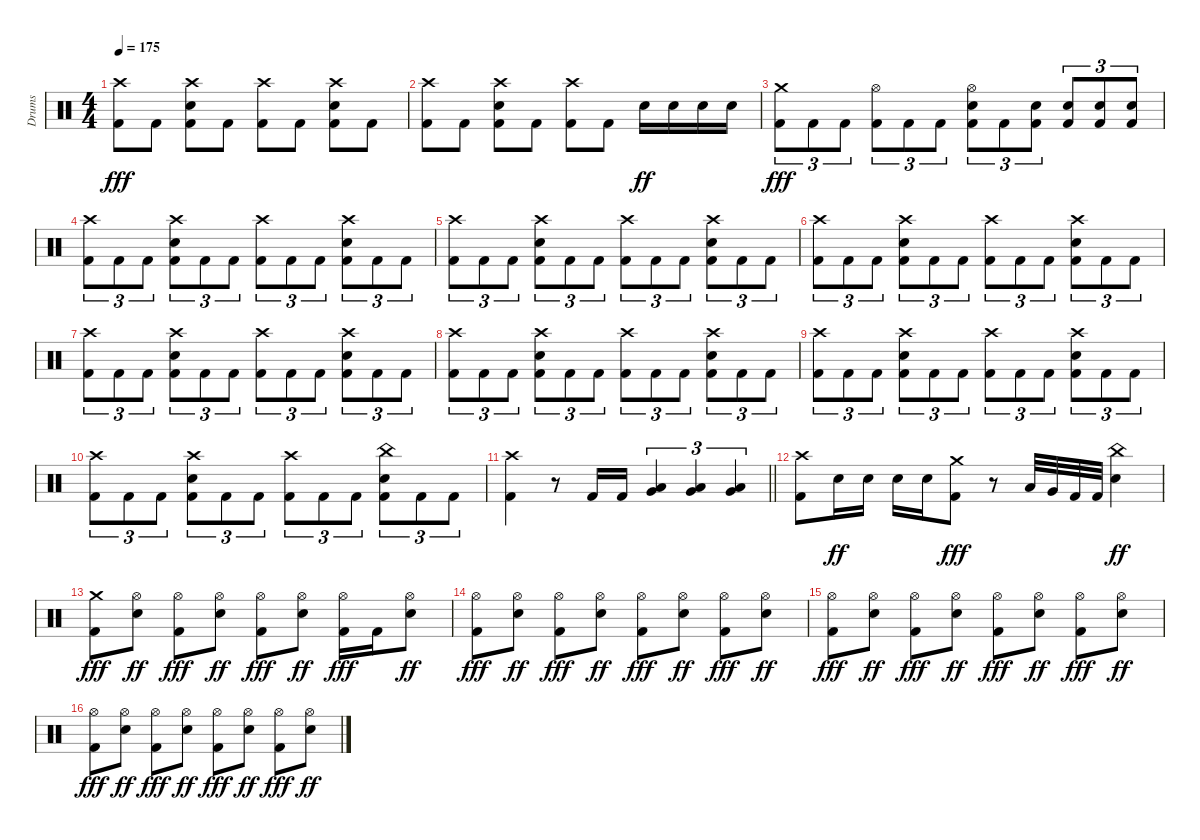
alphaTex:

\track ("Drums" "Drums") {instrument percussion}
\staff {score}
\articulation defaults
\ts (4 4)
\tempo 175
\clef neutral
\ks c
("Crash high (hit)" "Kick (hit) 2").8{dy fff} "Kick (hit) 2".8 ("Crash high (hit)" "Snare (hit) 2" "Kick (hit) 2").8 "Kick (hit) 2".8 ("Crash high (hit)" "Kick (hit) 2").8 "Kick (hit) 2".8 ("Crash high (hit)" "Snare (hit) 2" "Kick (hit) 2").8 "Kick (hit) 2".8 |
("Crash high (hit)" "Kick (hit) 2").8 "Kick (hit) 2".8 ("Crash high (hit)" "Snare (hit) 2" "Kick (hit) 2").8 "Kick (hit) 2".8 ("Crash high (hit)" "Kick (hit) 2").8 "Kick (hit) 2".8 "Snare (hit) 2".16{dy ff} "Snare (hit) 2".16 "Snare (hit) 2".16 "Snare (hit) 2".16 |
("Crash medium (hit)" "Kick (hit) 2").8{tu (3 2) dy fff} "Kick (hit) 2".8{tu (3 2)} "Kick (hit) 2".8{tu (3 2)} ("Hi-Hat (open)" "Kick (hit) 2").8{tu (3 2)} "Kick (hit) 2".8{tu (3 2)} "Kick (hit) 2".8{tu (3 2)} ("Hi-Hat (open)" "Snare (hit) 2" "Kick (hit) 2").8{tu (3 2)} "Kick (hit) 2".8{tu (3 2)} ("Snare (hit) 2" "Kick (hit) 2").8{tu (3 2)} ("Snare (hit) 2" "Kick (hit) 2").8{tu (3 2)} ("Snare (hit) 2" "Kick (hit) 2").8{tu (3 2)} ("Snare (hit) 2" "Kick (hit) 2").8{tu (3 2)} |
("Crash high (hit)" "Kick (hit) 2").8{tu (3 2)} "Kick (hit) 2".8{tu (3 2)} "Kick (hit) 2".8{tu (3 2)} ("Crash high (hit)" "Snare (hit) 2" "Kick (hit) 2").8{tu (3 2)} "Kick (hit) 2".8{tu (3 2)} "Kick (hit) 2".8{tu (3 2)} ("Crash high (hit)" "Kick (hit) 2").8{tu (3 2)} "Kick (hit) 2".8{tu (3 2)} "Kick (hit) 2".8{tu (3 2)} ("Crash high (hit)" "Snare (hit) 2" "Kick (hit) 2").8{tu (3 2)} "Kick (hit) 2".8{tu (3 2)} "Kick (hit) 2".8{tu (3 2)} |
("Crash high (hit)" "Kick (hit) 2").8{tu (3 2)} "Kick (hit) 2".8{tu (3 2)} "Kick (hit) 2".8{tu (3 2)} ("Crash high (hit)" "Snare (hit) 2" "Kick (hit) 2").8{tu (3 2)} "Kick (hit) 2".8{tu (3 2)} "Kick (hit) 2".8{tu (3 2)} ("Crash high (hit)" "Kick (hit) 2").8{tu (3 2)} "Kick (hit) 2".8{tu (3 2)} "Kick (hit) 2".8{tu (3 2)} ("Crash high (hit)" "Snare (hit) 2" "Kick (hit) 2").8{tu (3 2)} "Kick (hit) 2".8{tu (3 2)} "Kick (hit) 2".8{tu (3 2)} |
("Crash high (hit)" "Kick (hit) 2").8{tu (3 2)} "Kick (hit) 2".8{tu (3 2)} "Kick (hit) 2".8{tu (3 2)} ("Crash high (hit)" "Snare (hit) 2" "Kick (hit) 2").8{tu (3 2)} "Kick (hit) 2".8{tu (3 2)} "Kick (hit) 2".8{tu (3 2)} ("Crash high (hit)" "Kick (hit) 2").8{tu (3 2)} "Kick (hit) 2".8{tu (3 2)} "Kick (hit) 2".8{tu (3 2)} ("Crash high (hit)" "Snare (hit) 2" "Kick (hit) 2").8{tu (3 2)} "Kick (hit) 2".8{tu (3 2)} "Kick (hit) 2".8{tu (3 2)} |
("Crash high (hit)" "Kick (hit) 2").8{tu (3 2)} "Kick (hit) 2".8{tu (3 2)} "Kick (hit) 2".8{tu (3 2)} ("Crash high (hit)" "Snare (hit) 2" "Kick (hit) 2").8{tu (3 2)} "Kick (hit) 2".8{tu (3 2)} "Kick (hit) 2".8{tu (3 2)} ("Crash high (hit)" "Kick (hit) 2").8{tu (3 2)} "Kick (hit) 2".8{tu (3 2)} "Kick (hit) 2".8{tu (3 2)} ("Crash high (hit)" "Snare (hit) 2" "Kick (hit) 2").8{tu (3 2)} "Kick (hit) 2".8{tu (3 2)} "Kick (hit) 2".8{tu (3 2)} |
("Crash high (hit)" "Kick (hit) 2").8{tu (3 2)} "Kick (hit) 2".8{tu (3 2)} "Kick (hit) 2".8{tu (3 2)} ("Crash high (hit)" "Snare (hit) 2" "Kick (hit) 2").8{tu (3 2)} "Kick (hit) 2".8{tu (3 2)} "Kick (hit) 2".8{tu (3 2)} ("Crash high (hit)" "Kick (hit) 2").8{tu (3 2)} "Kick (hit) 2".8{tu (3 2)} "Kick (hit) 2".8{tu (3 2)} ("Crash high (hit)" "Snare (hit) 2" "Kick (hit) 2").8{tu (3 2)} "Kick (hit) 2".8{tu (3 2)} "Kick (hit) 2".8{tu (3 2)} |
("Crash high (hit)" "Kick (hit) 2").8{tu (3 2)} "Kick (hit) 2".8{tu (3 2)} "Kick (hit) 2".8{tu (3 2)} ("Crash high (hit)" "Snare (hit) 2" "Kick (hit) 2").8{tu (3 2)} "Kick (hit) 2".8{tu (3 2)} "Kick (hit) 2".8{tu (3 2)} ("Crash high (hit)" "Kick (hit) 2").8{tu (3 2)} "Kick (hit) 2".8{tu (3 2)} "Kick (hit) 2".8{tu (3 2)} ("Crash high (hit)" "Snare (hit) 2" "Kick (hit) 2").8{tu (3 2)} "Kick (hit) 2".8{tu (3 2)} "Kick (hit) 2".8{tu (3 2)} |
("Crash high (hit)" "Kick (hit) 2").8{tu (3 2)} "Kick (hit) 2".8{tu (3 2)} "Kick (hit) 2".8{tu (3 2)} ("Crash high (hit)" "Snare (hit) 2" "Kick (hit) 2").8{tu (3 2)} "Kick (hit) 2".8{tu (3 2)} "Kick (hit) 2".8{tu (3 2)} ("Crash high (hit)" "Kick (hit) 2").8{tu (3 2)} "Kick (hit) 2".8{tu (3 2)} "Kick (hit) 2".8{tu (3 2)} ("China (hit)" "Snare (hit) 2" "Kick (hit) 2").8{tu (3 2)} "Kick (hit) 2".8{tu (3 2)} "Kick (hit) 2".8{tu (3 2)} |
\barLineRight lightlight
("Crash high (hit)" "Kick (hit) 2").4 r.8 "Kick (hit) 2".16 "Kick (hit) 2".16 ("Very Low Tom (hit)" "Low Floor Tom (hit)").4{tu (3 2)} ("Very Low Tom (hit)" "Low Floor Tom (hit)").4{tu (3 2)} ("Very Low Tom (hit)" "Low Floor Tom (hit)").4{tu (3 2)} |
("Crash high (hit)" "Kick (hit) 2").8 "Snare (hit) 2".16{dy ff} "Snare (hit) 2".16 "Snare (hit) 2".16 "Snare (hit) 2".16 ("Crash medium (hit)" "Kick (hit) 2").8{dy fff} r.8 "Low Floor Tom (hit)".32 "Very Low Tom (hit)".32 "Kick (hit) 2".32 "Kick (hit) 2".32 ("China (hit)" "Snare (hit) 2").4{dy ff} |
("Crash medium (hit)" "Kick (hit) 2").8{dy fff} ("Hi-Hat (open)" "Snare (hit) 2").8{dy ff} ("Hi-Hat (open)" "Kick (hit) 2").8{dy fff} ("Hi-Hat (open)" "Snare (hit) 2").8{dy ff} ("Hi-Hat (open)" "Kick (hit) 2").8{dy fff} ("Hi-Hat (open)" "Snare (hit) 2").8{dy ff} ("Hi-Hat (open)" "Kick (hit) 2").16{dy fff} "Kick (hit) 2".16 ("Hi-Hat (open)" "Snare (hit) 2").8{dy ff} |
("Hi-Hat (open)" "Kick (hit) 2").8{dy fff} ("Hi-Hat (open)" "Snare (hit) 2").8{dy ff} ("Hi-Hat (open)" "Kick (hit) 2").8{dy fff} ("Hi-Hat (open)" "Snare (hit) 2").8{dy ff} ("Hi-Hat (open)" "Kick (hit) 2").8{dy fff} ("Hi-Hat (open)" "Snare (hit) 2").8{dy ff} ("Hi-Hat (open)" "Kick (hit) 2").8{dy fff} ("Hi-Hat (open)" "Snare (hit) 2").8{dy ff} |
("Hi-Hat (open)" "Kick (hit) 2").8{dy fff} ("Hi-Hat (open)" "Snare (hit) 2").8{dy ff} ("Hi-Hat (open)" "Kick (hit) 2").8{dy fff} ("Hi-Hat (open)" "Snare (hit) 2").8{dy ff} ("Hi-Hat (open)" "Kick (hit) 2").8{dy fff} ("Hi-Hat (open)" "Snare (hit) 2").8{dy ff} ("Hi-Hat (open)" "Kick (hit) 2").8{dy fff} ("Hi-Hat (open)" "Snare (hit) 2").8{dy ff} |
("Hi-Hat (open)" "Kick (hit) 2").8{dy fff} ("Hi-Hat (open)" "Snare (hit) 2").8{dy ff} ("Hi-Hat (open)" "Kick (hit) 2").8{dy fff} ("Hi-Hat (open)" "Snare (hit) 2").8{dy ff} ("Hi-Hat (open)" "Kick (hit) 2").8{dy fff} ("Hi-Hat (open)" "Snare (hit) 2").8{dy ff} ("Hi-Hat (open)" "Kick (hit) 2").8{dy fff} ("Hi-Hat (open)" "Snare (hit) 2").8{dy ff}
